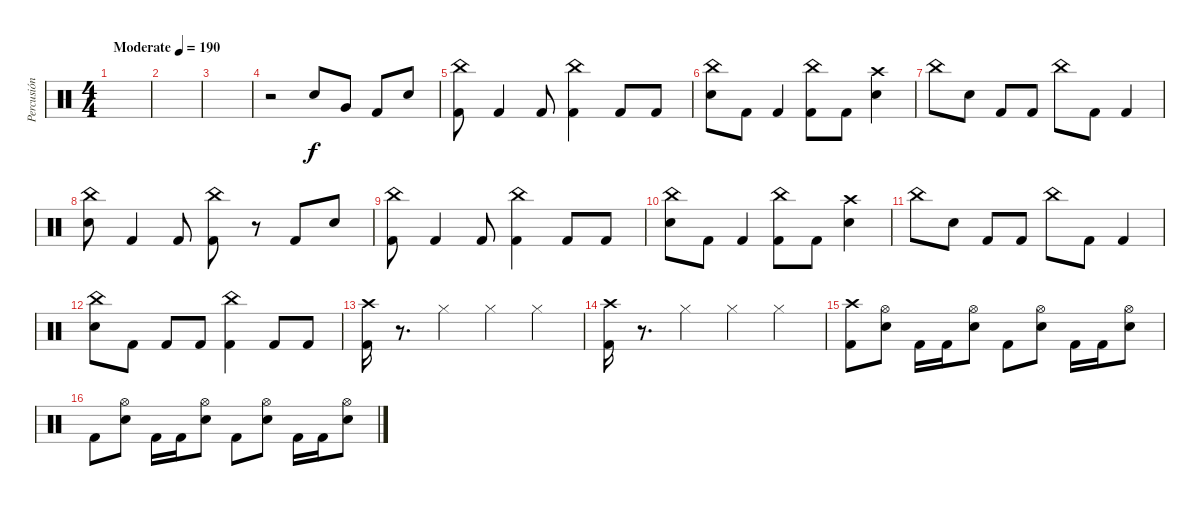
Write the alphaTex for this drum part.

\track ("Percusión" "Percusión") {instrument percussion}
\staff {score}
\articulation defaults
\ts (4 4)
\tempo (190 "Moderate")
\clef neutral
\ks c
|
|
|
r.2 "Electric Snare (hit)".8 "Very Low Tom (hit)".8 "Kick (hit) 2".8 "Electric Snare (hit)".8 |
("China (hit)" "Kick (hit) 2").8 "Kick (hit) 2".4 "Kick (hit) 2".8 ("China (hit)" "Kick (hit) 2").4 "Kick (hit) 2".8 "Kick (hit) 2".8 |
("China (hit)" "Electric Snare (hit)").8 "Kick (hit) 2".8 "Kick (hit) 2".4 ("China (hit)" "Kick (hit) 2").8 "Kick (hit) 2".8 ("Crash high (hit)" "Electric Snare (hit)").4 |
"China (hit)".8 "Electric Snare (hit)".8 "Kick (hit) 2".8 "Kick (hit) 2".8 "China (hit)".8 "Kick (hit) 2".8 "Kick (hit) 2".4 |
("China (hit)" "Electric Snare (hit)").8 "Kick (hit) 2".4 "Kick (hit) 2".8 ("China (hit)" "Kick (hit) 2").8 r.8 "Kick (hit) 2".8 "Electric Snare (hit)".8 |
("China (hit)" "Kick (hit) 2").8 "Kick (hit) 2".4 "Kick (hit) 2".8 ("China (hit)" "Kick (hit) 2").4 "Kick (hit) 2".8 "Kick (hit) 2".8 |
("China (hit)" "Electric Snare (hit)").8 "Kick (hit) 2".8 "Kick (hit) 2".4 ("China (hit)" "Kick (hit) 2").8 "Kick (hit) 2".8 ("Crash high (hit)" "Electric Snare (hit)").4 |
"China (hit)".8 "Electric Snare (hit)".8 "Kick (hit) 2".8 "Kick (hit) 2".8 "China (hit)".8 "Kick (hit) 2".8 "Kick (hit) 2".4 |
("China (hit)" "Electric Snare (hit)").8 "Kick (hit) 2".8 "Kick (hit) 2".8 "Kick (hit) 2".8 ("China (hit)" "Kick (hit) 2").4 "Kick (hit) 2".8 "Kick (hit) 2".8 |
("Crash high (hit)" "Kick (hit) 2").16 r.8{d} "Hi-Hat (closed)".4 "Hi-Hat (closed)".4 "Hi-Hat (closed)".4 |
("Crash high (hit)" "Kick (hit) 2").16 r.8{d} "Hi-Hat (closed)".4 "Hi-Hat (closed)".4 "Hi-Hat (closed)".4 |
("Crash high (hit)" "Kick (hit) 2").8 ("Hi-Hat (open)" "Electric Snare (hit)").8 "Kick (hit) 2".16 "Kick (hit) 2".16 ("Hi-Hat (open)" "Electric Snare (hit)").8 "Kick (hit) 2".8 ("Hi-Hat (open)" "Electric Snare (hit)").8 "Kick (hit) 2".16 "Kick (hit) 2".16 ("Hi-Hat (open)" "Electric Snare (hit)").8 |
"Kick (hit) 2".8 ("Hi-Hat (open)" "Electric Snare (hit)").8 "Kick (hit) 2".16 "Kick (hit) 2".16 ("Hi-Hat (open)" "Electric Snare (hit)").8 "Kick (hit) 2".8 ("Hi-Hat (open)" "Electric Snare (hit)").8 "Kick (hit) 2".16 "Kick (hit) 2".16 ("Hi-Hat (open)" "Electric Snare (hit)").8
